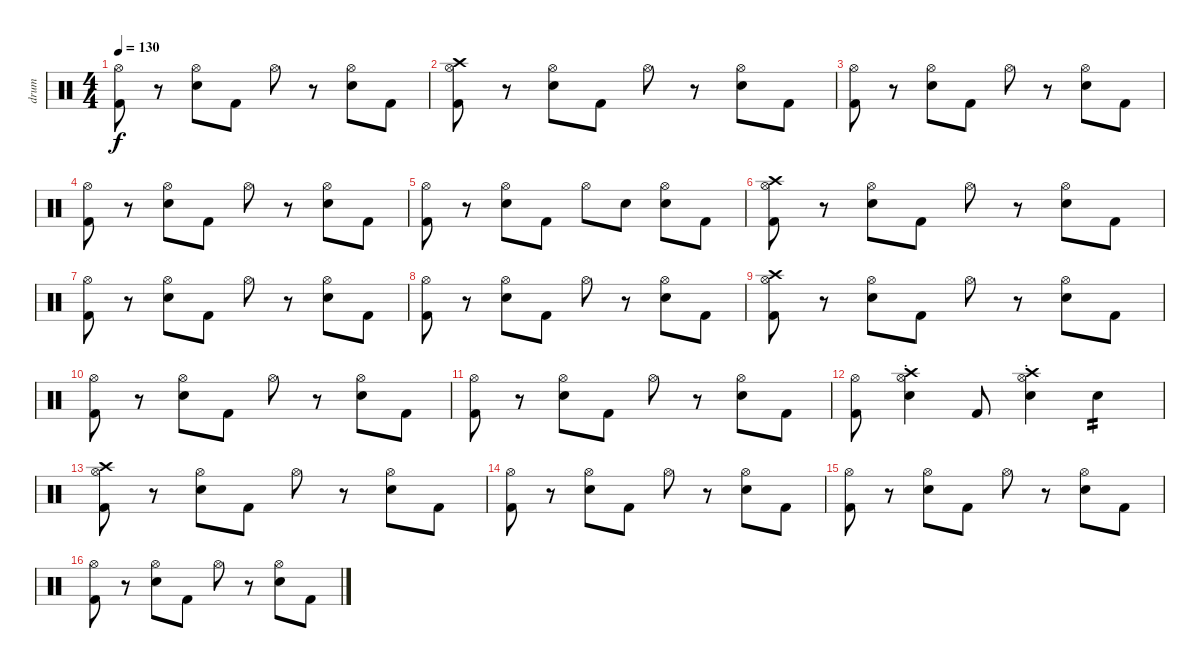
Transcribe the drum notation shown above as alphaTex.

\track ("drum" "drum") {instrument percussion}
\staff {score}
\articulation defaults
\ts (4 4)
\tempo 130
\clef neutral
\ks c
("Hi-Hat (open)" "Kick (hit) 2").8{dy f} r.8 ("Hi-Hat (open)" "Electric Snare (hit)").8 "Kick (hit) 2".8 "Hi-Hat (open)".8 r.8 ("Hi-Hat (open)" "Electric Snare (hit)").8 "Kick (hit) 2".8 |
("Crash high (hit)" "Hi-Hat (open)" "Kick (hit) 2").8 r.8 ("Hi-Hat (open)" "Electric Snare (hit)").8 "Kick (hit) 2".8 "Hi-Hat (open)".8 r.8 ("Hi-Hat (open)" "Electric Snare (hit)").8 "Kick (hit) 2".8 |
("Hi-Hat (open)" "Kick (hit) 2").8 r.8 ("Hi-Hat (open)" "Electric Snare (hit)").8 "Kick (hit) 2".8 "Hi-Hat (open)".8 r.8 ("Hi-Hat (open)" "Electric Snare (hit)").8 "Kick (hit) 2".8 |
("Hi-Hat (open)" "Kick (hit) 2").8 r.8 ("Hi-Hat (open)" "Electric Snare (hit)").8 "Kick (hit) 2".8 "Hi-Hat (open)".8 r.8 ("Hi-Hat (open)" "Electric Snare (hit)").8 "Kick (hit) 2".8 |
("Hi-Hat (open)" "Kick (hit) 2").8 r.8 ("Hi-Hat (open)" "Electric Snare (hit)").8 "Kick (hit) 2".8 "Hi-Hat (open)".8 "Electric Snare (hit)".8 ("Hi-Hat (open)" "Electric Snare (hit)").8 "Kick (hit) 2".8 |
("Crash high (hit)" "Hi-Hat (open)" "Kick (hit) 2").8 r.8 ("Hi-Hat (open)" "Electric Snare (hit)").8 "Kick (hit) 2".8 "Hi-Hat (open)".8 r.8 ("Hi-Hat (open)" "Electric Snare (hit)").8 "Kick (hit) 2".8 |
("Hi-Hat (open)" "Kick (hit) 2").8 r.8 ("Hi-Hat (open)" "Electric Snare (hit)").8 "Kick (hit) 2".8 "Hi-Hat (open)".8 r.8 ("Hi-Hat (open)" "Electric Snare (hit)").8 "Kick (hit) 2".8 |
("Hi-Hat (open)" "Kick (hit) 2").8 r.8 ("Hi-Hat (open)" "Electric Snare (hit)").8 "Kick (hit) 2".8 "Hi-Hat (open)".8 r.8 ("Hi-Hat (open)" "Electric Snare (hit)").8 "Kick (hit) 2".8 |
("Crash high (hit)" "Hi-Hat (open)" "Kick (hit) 2").8 r.8 ("Hi-Hat (open)" "Electric Snare (hit)").8 "Kick (hit) 2".8 "Hi-Hat (open)".8 r.8 ("Hi-Hat (open)" "Electric Snare (hit)").8 "Kick (hit) 2".8 |
("Hi-Hat (open)" "Kick (hit) 2").8 r.8 ("Hi-Hat (open)" "Electric Snare (hit)").8 "Kick (hit) 2".8 "Hi-Hat (open)".8 r.8 ("Hi-Hat (open)" "Electric Snare (hit)").8 "Kick (hit) 2".8 |
("Hi-Hat (open)" "Kick (hit) 2").8 r.8 ("Hi-Hat (open)" "Electric Snare (hit)").8 "Kick (hit) 2".8 "Hi-Hat (open)".8 r.8 ("Hi-Hat (open)" "Electric Snare (hit)").8 "Kick (hit) 2".8 |
("Hi-Hat (open)" "Kick (hit) 2").8 ("Crash high (hit)"{st} "Hi-Hat (open)"{st} "Electric Snare (hit)"{st}).4 "Kick (hit) 2".8 ("Crash high (hit)"{st} "Hi-Hat (open)"{st} "Electric Snare (hit)"{st}).4 "Electric Snare (hit)".4{tp 2} |
("Crash high (hit)" "Hi-Hat (open)" "Kick (hit) 2").8 r.8 ("Hi-Hat (open)" "Electric Snare (hit)").8 "Kick (hit) 2".8 "Hi-Hat (open)".8 r.8 ("Hi-Hat (open)" "Electric Snare (hit)").8 "Kick (hit) 2".8 |
("Hi-Hat (open)" "Kick (hit) 2").8 r.8 ("Hi-Hat (open)" "Electric Snare (hit)").8 "Kick (hit) 2".8 "Hi-Hat (open)".8 r.8 ("Hi-Hat (open)" "Electric Snare (hit)").8 "Kick (hit) 2".8 |
("Hi-Hat (open)" "Kick (hit) 2").8 r.8 ("Hi-Hat (open)" "Electric Snare (hit)").8 "Kick (hit) 2".8 "Hi-Hat (open)".8 r.8 ("Hi-Hat (open)" "Electric Snare (hit)").8 "Kick (hit) 2".8 |
("Hi-Hat (open)" "Kick (hit) 2").8 r.8 ("Hi-Hat (open)" "Electric Snare (hit)").8 "Kick (hit) 2".8 "Hi-Hat (open)".8 r.8 ("Hi-Hat (open)" "Electric Snare (hit)").8 "Kick (hit) 2".8
